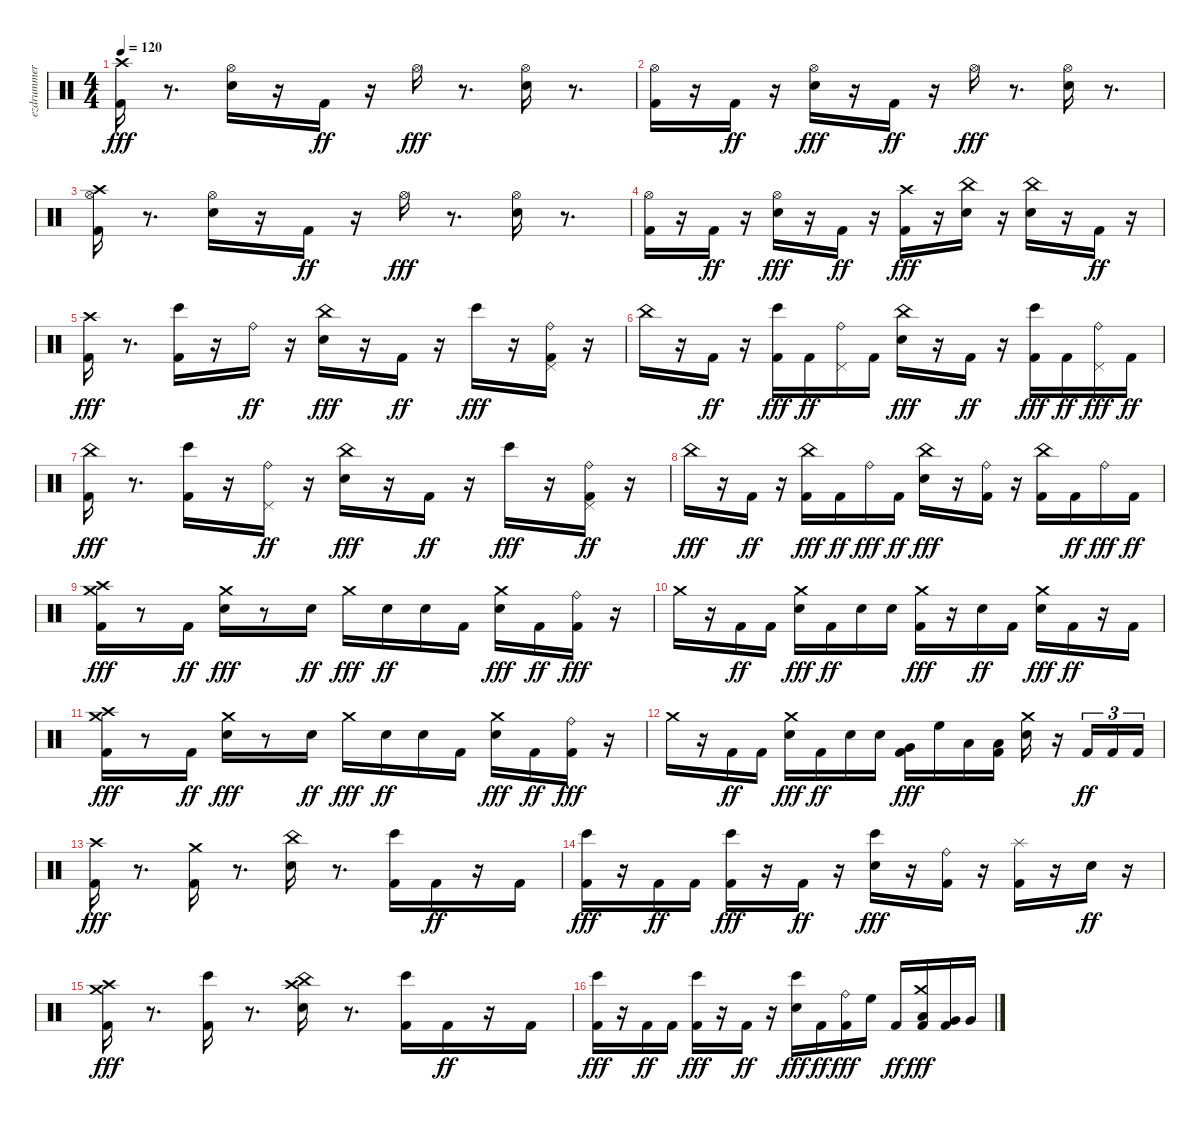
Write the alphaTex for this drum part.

\track ("ezdrummer 02" "ezdrummer ") {instrument percussion}
\staff {score}
\articulation defaults
\ts (4 4)
\tempo 120
\clef neutral
\ks c
("Kick (hit) 2" "Crash high (hit)").16{dy fff} r.8{d} ("Snare (hit) 2" "Hi-Hat (open)").16 r.16 "Kick (hit) 2".16{dy ff} r.16 "Hi-Hat (open)".16{dy fff} r.8{d} ("Snare (hit) 2" "Hi-Hat (open)").16 r.8{d} |
("Kick (hit) 2" "Hi-Hat (open)").16 r.16 "Kick (hit) 2".16{dy ff} r.16 ("Snare (hit) 2" "Hi-Hat (open)").16{dy fff} r.16 "Kick (hit) 2".16{dy ff} r.16 "Hi-Hat (open)".16{dy fff} r.8{d} ("Snare (hit) 2" "Hi-Hat (open)").16 r.8{d} |
("Kick (hit) 2" "Hi-Hat (open)" "Crash high (hit)").16 r.8{d} ("Snare (hit) 2" "Hi-Hat (open)").16 r.16 "Kick (hit) 2".16{dy ff} r.16 "Hi-Hat (open)".16{dy fff} r.8{d} ("Snare (hit) 2" "Hi-Hat (open)").16 r.8{d} |
("Kick (hit) 2" "Hi-Hat (open)").16 r.16 "Kick (hit) 2".16{dy ff} r.16 ("Snare (hit) 2" "Hi-Hat (open)").16{dy fff} r.16 "Kick (hit) 2".16{dy ff} r.16 ("Kick (hit) 2" "Crash high (hit)").16{dy fff} r.16 ("Snare (hit) 2" "China (hit)").16 r.16 ("Snare (hit) 2" "China (hit)").16 r.16 "Kick (hit) 2".16{dy ff} r.16 |
("Kick (hit) 2" "Crash high (hit)").16{dy fff} r.8{d} ("Kick (hit) 2" "Bongo High (hit)").16 r.16 "Ride (bell)".16{dy ff} r.16 ("Snare (hit) 2" "China (hit)").16{dy fff} r.16 "Kick (hit) 2".16{dy ff} r.16 "Bongo High (hit)".16{dy fff} r.16 ("Kick (hit) 2" "Pedal Hi-Hat (hit)" "Ride (bell)").16 r.16 |
"China (hit)".16 r.16 "Kick (hit) 2".16{dy ff} r.16 ("Kick (hit) 2" "Bongo High (hit)").16{dy fff} "Kick (hit) 2".16{dy ff} ("Pedal Hi-Hat (hit)" "Ride (bell)").16 "Kick (hit) 2".16 ("Snare (hit) 2" "China (hit)").16{dy fff} r.16 "Kick (hit) 2".16{dy ff} r.16 ("Kick (hit) 2" "Bongo High (hit)").16{dy fff} "Kick (hit) 2".16{dy ff} ("Pedal Hi-Hat (hit)" "Ride (bell)").16{dy fff} "Kick (hit) 2".16{dy ff} |
("Kick (hit) 2" "China (hit)").16{dy fff} r.8{d} ("Kick (hit) 2" "Bongo High (hit)").16 r.16 ("Pedal Hi-Hat (hit)" "Ride (bell)").16{dy ff} r.16 ("Snare (hit) 2" "China (hit)").16{dy fff} r.16 "Kick (hit) 2".16{dy ff} r.16 "Bongo High (hit)".16{dy fff} r.16 ("Kick (hit) 2" "Pedal Hi-Hat (hit)" "Ride (bell)").16{dy ff} r.16 |
"China (hit)".16{dy fff} r.16 "Kick (hit) 2".16{dy ff} r.16 ("Kick (hit) 2" "China (hit)").16{dy fff} "Kick (hit) 2".16{dy ff} "Ride (bell)".16{dy fff} "Kick (hit) 2".16{dy ff} ("Snare (hit) 2" "China (hit)").16{dy fff} r.16 ("Kick (hit) 2" "Ride (bell)").16 r.16 ("Kick (hit) 2" "China (hit)").16 "Kick (hit) 2".16{dy ff} "Ride (bell)".16{dy fff} "Kick (hit) 2".16{dy ff} |
("Kick (hit) 2" "Crash high (hit)" "Crash medium (hit)").16{dy fff} r.8 "Kick (hit) 2".16{dy ff} ("Snare (hit) 2" "Crash medium (hit)").16{dy fff} r.8 "Snare (hit) 2".16{dy ff} "Crash medium (hit)".16{dy fff} "Snare (hit) 2".16{dy ff} "Snare (hit) 2".16 "Kick (hit) 2".16 ("Snare (hit) 2" "Crash medium (hit)").16{dy fff} "Kick (hit) 2".16{dy ff} ("Kick (hit) 2" "Ride (bell)").16{dy fff} r.16 |
"Crash medium (hit)".16 r.16 "Kick (hit) 2".16{dy ff} "Kick (hit) 2".16 ("Snare (hit) 2" "Crash medium (hit)").16{dy fff} "Kick (hit) 2".16{dy ff} "Snare (hit) 2".16 "Snare (hit) 2".16 ("Kick (hit) 2" "Crash medium (hit)").16{dy fff} r.16 "Snare (hit) 2".16{dy ff} "Kick (hit) 2".16 ("Snare (hit) 2" "Crash medium (hit)").16{dy fff} "Kick (hit) 2".16{dy ff} r.16 "Kick (hit) 2".16 |
("Kick (hit) 2" "Crash high (hit)" "Crash medium (hit)").16{dy fff} r.8 "Kick (hit) 2".16{dy ff} ("Snare (hit) 2" "Crash medium (hit)").16{dy fff} r.8 "Snare (hit) 2".16{dy ff} "Crash medium (hit)".16{dy fff} "Snare (hit) 2".16{dy ff} "Snare (hit) 2".16 "Kick (hit) 2".16 ("Snare (hit) 2" "Crash medium (hit)").16{dy fff} "Kick (hit) 2".16{dy ff} ("Kick (hit) 2" "Ride (bell)").16{dy fff} r.16 |
"Crash medium (hit)".16 r.16 "Kick (hit) 2".16{dy ff} "Kick (hit) 2".16 ("Snare (hit) 2" "Crash medium (hit)").16{dy fff} "Kick (hit) 2".16{dy ff} "Snare (hit) 2".16 "Snare (hit) 2".16 ("Kick (hit) 2" "Very Low Tom (hit)").16{dy fff} "High Floor Tom (hit)".16 "Low Floor Tom (hit)".16 ("Kick (hit) 2" "Low Tom (hit)").16 ("Snare (hit) 2" "Crash medium (hit)").16 r.16 "Kick (hit) 2".16{tu (3 2) dy ff} "Kick (hit) 2".16{tu (3 2)} "Kick (hit) 2".16{tu (3 2)} |
("Kick (hit) 2" "Crash high (hit)").16{dy fff} r.8{d} ("Kick (hit) 2" "Crash medium (hit)").16 r.8{d} ("Snare (hit) 2" "China (hit)").16 r.8{d} ("Kick (hit) 2" "Bongo High (hit)").16 "Kick (hit) 2".16{dy ff} r.16 "Kick (hit) 2".16 |
("Kick (hit) 2" "Bongo High (hit)").16{dy fff} r.16 "Kick (hit) 2".16{dy ff} "Kick (hit) 2".16 ("Kick (hit) 2" "Bongo High (hit)").16{dy fff} r.16 "Kick (hit) 2".16{dy ff} r.16 ("Snare (hit) 2" "Bongo High (hit)").16{dy fff} r.16 ("Kick (hit) 2" "Ride (bell)").16 r.16 ("Kick (hit) 2" "Splash (hit)").16 r.16 "Snare (hit) 2".16{dy ff} r.16 |
("Kick (hit) 2" "Crash high (hit)" "Crash medium (hit)").16{dy fff} r.8{d} ("Kick (hit) 2" "Bongo High (hit)").16 r.8{d} ("Snare (hit) 2" "Crash high (hit)" "China (hit)").16 r.8{d} ("Kick (hit) 2" "Bongo High (hit)").16 "Kick (hit) 2".16{dy ff} r.16 "Kick (hit) 2".16 |
("Kick (hit) 2" "Bongo High (hit)").16{dy fff} r.16 "Kick (hit) 2".16{dy ff} "Kick (hit) 2".16 ("Kick (hit) 2" "Bongo High (hit)").16{dy fff} r.16 "Kick (hit) 2".16{dy ff} r.16 ("Snare (hit) 2" "Bongo High (hit)").16{dy fff} "Kick (hit) 2".16{dy ff} ("Kick (hit) 2" "Ride (bell)").16{dy fff} "High Floor Tom (hit)".16 "Kick (hit) 2".16{dy ff} ("Kick (hit) 2" "Low Tom (hit)" "Crash medium (hit)").16{dy fff} ("Kick (hit) 2" "Very Low Tom (hit)").16 "Very Low Tom (hit)".16
